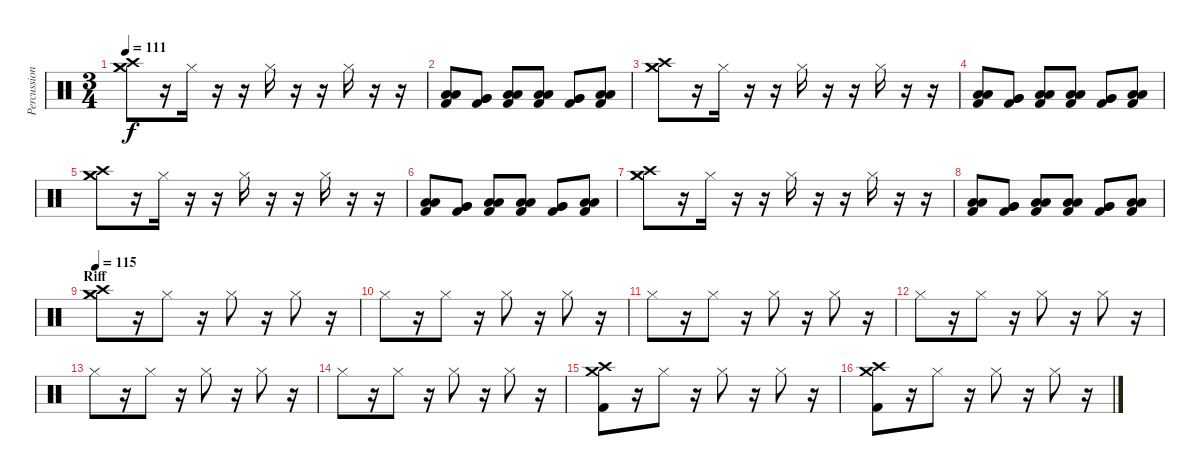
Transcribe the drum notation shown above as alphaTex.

\track ("Percussion" "Percussion") {instrument percussion}
\staff {score}
\articulation defaults
\ts (3 4)
\tempo 111
\clef neutral
\ks c
("Crash medium (hit)" "Crash high (hit)" "Crash medium (hit)").8{dy f} r.16 "Hi-Hat (closed)".16 r.16 r.16 "Hi-Hat (closed)".16 r.16 r.16 "Hi-Hat (closed)".16 r.16 r.16 |
("Low Tom (hit)" "Low Tom (hit)" "Kick (hit) 2").8 ("Very Low Tom (hit)" "Very Low Tom (hit)" "Kick (hit) 2").8 ("Low Floor Tom (hit)" "Low Floor Tom (hit)" "Kick (hit) 2").8 ("Low Tom (hit)" "Low Tom (hit)" "Kick (hit) 2").8 ("Very Low Tom (hit)" "Very Low Tom (hit)" "Kick (hit) 2").8 ("Low Floor Tom (hit)" "Low Floor Tom (hit)" "Kick (hit) 2").8 |
("Crash medium (hit)" "Crash high (hit)" "Crash medium (hit)").8 r.16 "Hi-Hat (closed)".16 r.16 r.16 "Hi-Hat (closed)".16 r.16 r.16 "Hi-Hat (closed)".16 r.16 r.16 |
("Low Tom (hit)" "Low Tom (hit)" "Kick (hit) 2").8 ("Very Low Tom (hit)" "Very Low Tom (hit)" "Kick (hit) 2").8 ("Low Floor Tom (hit)" "Low Floor Tom (hit)" "Kick (hit) 2").8 ("Low Tom (hit)" "Low Tom (hit)" "Kick (hit) 2").8 ("Very Low Tom (hit)" "Very Low Tom (hit)" "Kick (hit) 2").8 ("Low Floor Tom (hit)" "Low Floor Tom (hit)" "Kick (hit) 2").8 |
("Crash medium (hit)" "Crash high (hit)" "Crash medium (hit)").8 r.16 "Hi-Hat (closed)".16 r.16 r.16 "Hi-Hat (closed)".16 r.16 r.16 "Hi-Hat (closed)".16 r.16 r.16 |
("Low Tom (hit)" "Low Tom (hit)" "Kick (hit) 2").8 ("Very Low Tom (hit)" "Very Low Tom (hit)" "Kick (hit) 2").8 ("Low Floor Tom (hit)" "Low Floor Tom (hit)" "Kick (hit) 2").8 ("Low Tom (hit)" "Low Tom (hit)" "Kick (hit) 2").8 ("Very Low Tom (hit)" "Very Low Tom (hit)" "Kick (hit) 2").8 ("Low Floor Tom (hit)" "Low Floor Tom (hit)" "Kick (hit) 2").8 |
("Crash medium (hit)" "Crash high (hit)" "Crash medium (hit)").8 r.16 "Hi-Hat (closed)".16 r.16 r.16 "Hi-Hat (closed)".16 r.16 r.16 "Hi-Hat (closed)".16 r.16 r.16 |
("Low Tom (hit)" "Low Tom (hit)" "Kick (hit) 2").8 ("Very Low Tom (hit)" "Very Low Tom (hit)" "Kick (hit) 2").8 ("Low Floor Tom (hit)" "Low Floor Tom (hit)" "Kick (hit) 2").8 ("Low Tom (hit)" "Low Tom (hit)" "Kick (hit) 2").8 ("Very Low Tom (hit)" "Very Low Tom (hit)" "Kick (hit) 2").8 ("Low Floor Tom (hit)" "Low Floor Tom (hit)" "Kick (hit) 2").8 |
\section ("" "Riff")
\tempo 115
("Crash medium (hit)" "Crash high (hit)" "Crash medium (hit)").8 r.16 "Hi-Hat (closed)".8 r.16 "Hi-Hat (closed)".8 r.16 "Hi-Hat (closed)".8 r.16 |
"Hi-Hat (closed)".8 r.16 "Hi-Hat (closed)".8 r.16 "Hi-Hat (closed)".8 r.16 "Hi-Hat (closed)".8 r.16 |
"Hi-Hat (closed)".8 r.16 "Hi-Hat (closed)".8 r.16 "Hi-Hat (closed)".8 r.16 "Hi-Hat (closed)".8 r.16 |
"Hi-Hat (closed)".8 r.16 "Hi-Hat (closed)".8 r.16 "Hi-Hat (closed)".8 r.16 "Hi-Hat (closed)".8 r.16 |
"Hi-Hat (closed)".8 r.16 "Hi-Hat (closed)".8 r.16 "Hi-Hat (closed)".8 r.16 "Hi-Hat (closed)".8 r.16 |
"Hi-Hat (closed)".8 r.16 "Hi-Hat (closed)".8 r.16 "Hi-Hat (closed)".8 r.16 "Hi-Hat (closed)".8 r.16 |
("Crash medium (hit)" "Crash high (hit)" "Kick (hit) 2").8 r.16 "Hi-Hat (closed)".8 r.16 "Hi-Hat (closed)".8 r.16 "Hi-Hat (closed)".8 r.16 |
("Crash medium (hit)" "Crash high (hit)" "Kick (hit) 2").8 r.16 "Hi-Hat (closed)".8 r.16 "Hi-Hat (closed)".8 r.16 "Hi-Hat (closed)".8 r.16
